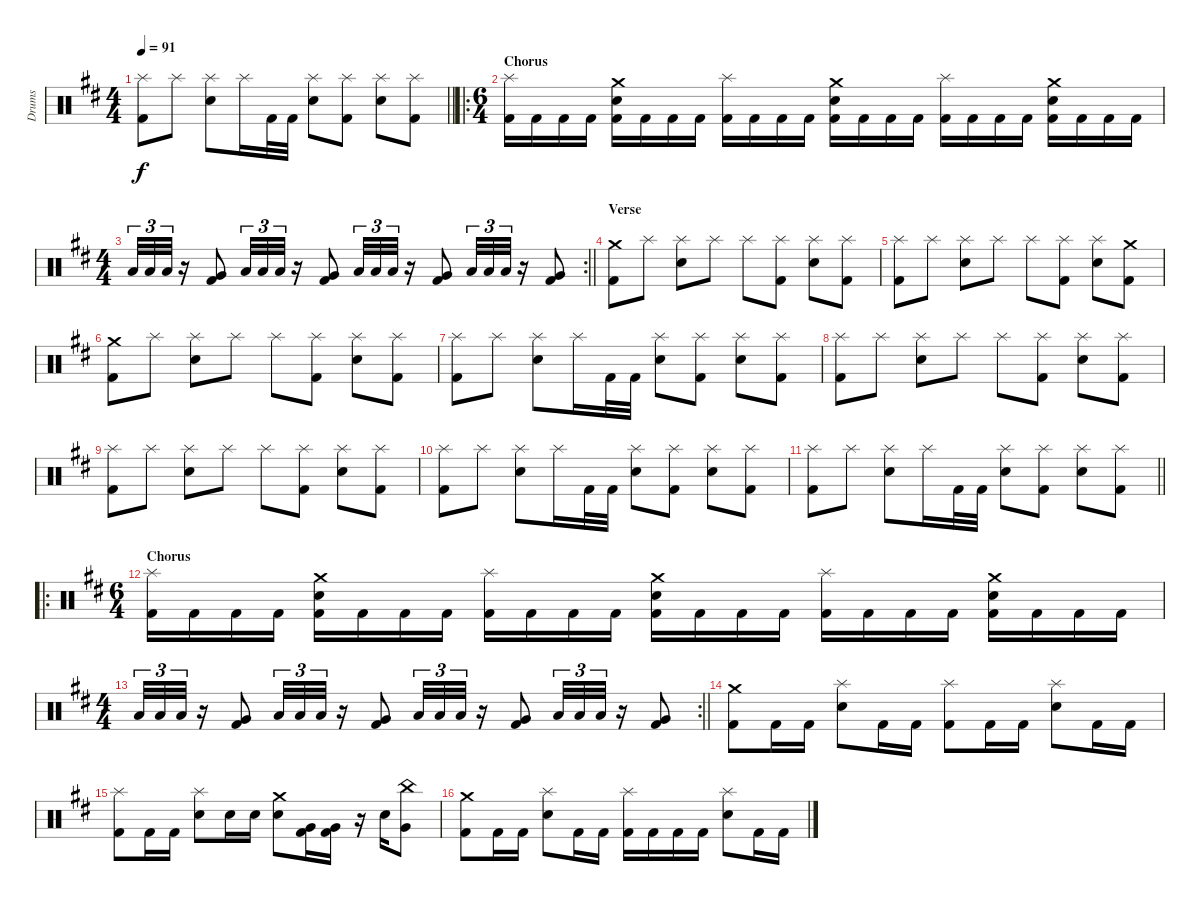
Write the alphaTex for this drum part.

\track ("Drums" "Drums") {instrument percussion}
\staff {score}
\articulation defaults
\ts (4 4)
\tempo 91
\clef neutral
\barLineRight lightlight
\ks bminor
("Splash (hit)" "Kick (hit) 2").8{dy f} "Splash (hit)".8 ("Splash (hit)" "Snare (hit) 2").8 "Splash (hit)".16 "Kick (hit) 2".32 "Kick (hit) 2".32 ("Splash (hit)" "Snare (hit) 2").8 ("Splash (hit)" "Kick (hit) 2").8 ("Splash (hit)" "Snare (hit) 2").8 ("Splash (hit)" "Kick (hit) 2").8 |
\ro
\ts (6 4)
\section ("" "Chorus")
("Splash (hit)" "Kick (hit) 2").16 "Kick (hit) 2".16 "Kick (hit) 2".16 "Kick (hit) 2".16 ("Crash medium (hit)" "Snare (hit) 2" "Kick (hit) 2").16 "Kick (hit) 2".16 "Kick (hit) 2".16 "Kick (hit) 2".16 ("Splash (hit)" "Kick (hit) 2").16 "Kick (hit) 2".16 "Kick (hit) 2".16 "Kick (hit) 2".16 ("Crash medium (hit)" "Snare (hit) 2" "Kick (hit) 2").16 "Kick (hit) 2".16 "Kick (hit) 2".16 "Kick (hit) 2".16 ("Splash (hit)" "Kick (hit) 2").16 "Kick (hit) 2".16 "Kick (hit) 2".16 "Kick (hit) 2".16 ("Crash medium (hit)" "Snare (hit) 2" "Kick (hit) 2").16 "Kick (hit) 2".16 "Kick (hit) 2".16 "Kick (hit) 2".16 |
\rc 2
\ts (4 4)
\barLineRight lightlight "Low Tom (hit)".32{tu (3 2)} "Low Tom (hit)".32{tu (3 2)} "Low Tom (hit)".32{tu (3 2)}
r.16 ("Very Low Tom (hit)" "Kick (hit) 2").8 "Low Tom (hit)".32{tu (3 2)} "Low Tom (hit)".32{tu (3 2)} "Low Tom (hit)".32{tu (3 2)} r.16 ("Very Low Tom (hit)" "Kick (hit) 2").8 "Low Tom (hit)".32{tu (3 2)} "Low Tom (hit)".32{tu (3 2)} "Low Tom (hit)".32{tu (3 2)} r.16 ("Very Low Tom (hit)" "Kick (hit) 2").8 "Low Tom (hit)".32{tu (3 2)} "Low Tom (hit)".32{tu (3 2)} "Low Tom (hit)".32{tu (3 2)} r.16 ("Very Low Tom (hit)" "Kick (hit) 2").8 |
\section ("" "Verse")
("Crash medium (hit)" "Kick (hit) 2").8 "Splash (hit)".8 ("Splash (hit)" "Snare (hit) 2").8 "Splash (hit)".8 "Splash (hit)".8 ("Splash (hit)" "Kick (hit) 2").8 ("Splash (hit)" "Snare (hit) 2").8 ("Splash (hit)" "Kick (hit) 2").8 |
("Splash (hit)" "Kick (hit) 2").8 "Splash (hit)".8 ("Splash (hit)" "Snare (hit) 2").8 "Splash (hit)".8 "Splash (hit)".8 ("Splash (hit)" "Kick (hit) 2").8 ("Splash (hit)" "Snare (hit) 2").8 ("Crash medium (hit)" "Kick (hit) 2").8 |
("Crash medium (hit)" "Kick (hit) 2").8 "Splash (hit)".8 ("Splash (hit)" "Snare (hit) 2").8 "Splash (hit)".8 "Splash (hit)".8 ("Splash (hit)" "Kick (hit) 2").8 ("Splash (hit)" "Snare (hit) 2").8 ("Splash (hit)" "Kick (hit) 2").8 |
("Splash (hit)" "Kick (hit) 2").8 "Splash (hit)".8 ("Splash (hit)" "Snare (hit) 2").8 "Splash (hit)".16 "Kick (hit) 2".32 "Kick (hit) 2".32 ("Splash (hit)" "Snare (hit) 2").8 ("Splash (hit)" "Kick (hit) 2").8 ("Splash (hit)" "Snare (hit) 2").8 ("Splash (hit)" "Kick (hit) 2").8 |
("Splash (hit)" "Kick (hit) 2").8 "Splash (hit)".8 ("Splash (hit)" "Snare (hit) 2").8 "Splash (hit)".8 "Splash (hit)".8 ("Splash (hit)" "Kick (hit) 2").8 ("Splash (hit)" "Snare (hit) 2").8 ("Splash (hit)" "Kick (hit) 2").8 |
("Splash (hit)" "Kick (hit) 2").8 "Splash (hit)".8 ("Splash (hit)" "Snare (hit) 2").8 "Splash (hit)".8 "Splash (hit)".8 ("Splash (hit)" "Kick (hit) 2").8 ("Splash (hit)" "Snare (hit) 2").8 ("Splash (hit)" "Kick (hit) 2").8 |
("Splash (hit)" "Kick (hit) 2").8 "Splash (hit)".8 ("Splash (hit)" "Snare (hit) 2").8 "Splash (hit)".16 "Kick (hit) 2".32 "Kick (hit) 2".32 ("Splash (hit)" "Snare (hit) 2").8 ("Splash (hit)" "Kick (hit) 2").8 ("Splash (hit)" "Snare (hit) 2").8 ("Splash (hit)" "Kick (hit) 2").8 |
\barLineRight lightlight
("Splash (hit)" "Kick (hit) 2").8 "Splash (hit)".8 ("Splash (hit)" "Snare (hit) 2").8 "Splash (hit)".16 "Kick (hit) 2".32 "Kick (hit) 2".32 ("Splash (hit)" "Snare (hit) 2").8 ("Splash (hit)" "Kick (hit) 2").8 ("Splash (hit)" "Snare (hit) 2").8 ("Splash (hit)" "Kick (hit) 2").8 |
\ro
\ts (6 4)
\section ("" "Chorus")
("Splash (hit)" "Kick (hit) 2").16 "Kick (hit) 2".16 "Kick (hit) 2".16 "Kick (hit) 2".16 ("Crash medium (hit)" "Snare (hit) 2" "Kick (hit) 2").16 "Kick (hit) 2".16 "Kick (hit) 2".16 "Kick (hit) 2".16 ("Splash (hit)" "Kick (hit) 2").16 "Kick (hit) 2".16 "Kick (hit) 2".16 "Kick (hit) 2".16 ("Crash medium (hit)" "Snare (hit) 2" "Kick (hit) 2").16 "Kick (hit) 2".16 "Kick (hit) 2".16 "Kick (hit) 2".16 ("Splash (hit)" "Kick (hit) 2").16 "Kick (hit) 2".16 "Kick (hit) 2".16 "Kick (hit) 2".16 ("Crash medium (hit)" "Snare (hit) 2" "Kick (hit) 2").16 "Kick (hit) 2".16 "Kick (hit) 2".16 "Kick (hit) 2".16 |
\rc 2
\ts (4 4)
\barLineRight lightlight "Low Tom (hit)".32{tu (3 2)} "Low Tom (hit)".32{tu (3 2)} "Low Tom (hit)".32{tu (3 2)}
r.16 ("Very Low Tom (hit)" "Kick (hit) 2").8 "Low Tom (hit)".32{tu (3 2)} "Low Tom (hit)".32{tu (3 2)} "Low Tom (hit)".32{tu (3 2)} r.16 ("Very Low Tom (hit)" "Kick (hit) 2").8 "Low Tom (hit)".32{tu (3 2)} "Low Tom (hit)".32{tu (3 2)} "Low Tom (hit)".32{tu (3 2)} r.16 ("Very Low Tom (hit)" "Kick (hit) 2").8 "Low Tom (hit)".32{tu (3 2)} "Low Tom (hit)".32{tu (3 2)} "Low Tom (hit)".32{tu (3 2)} r.16 ("Very Low Tom (hit)" "Kick (hit) 2").8 |
("Crash medium (hit)" "Kick (hit) 2").8 "Kick (hit) 2".16 "Kick (hit) 2".16 ("Splash (hit)" "Snare (hit) 2").8 "Kick (hit) 2".16 "Kick (hit) 2".16 ("Splash (hit)" "Kick (hit) 2").8 "Kick (hit) 2".16 "Kick (hit) 2".16 ("Splash (hit)" "Snare (hit) 2").8 "Kick (hit) 2".16 "Kick (hit) 2".16 |
("Splash (hit)" "Kick (hit) 2").8 "Kick (hit) 2".16 "Kick (hit) 2".16 ("Splash (hit)" "Snare (hit) 2").8 "Snare (hit) 2".16 "Snare (hit) 2".16 ("Crash medium (hit)" "Snare (hit) 2").8 ("Very Low Tom (hit)" "Kick (hit) 2").16 ("Very Low Tom (hit)" "Kick (hit) 2").16 r.16 "Snare (hit) 2".16 ("China (hit)" "Very Low Tom (hit)").8 |
("Crash medium (hit)" "Kick (hit) 2").8 "Kick (hit) 2".16 "Kick (hit) 2".16 ("Splash (hit)" "Snare (hit) 2").8 "Kick (hit) 2".16 "Kick (hit) 2".16 ("Splash (hit)" "Kick (hit) 2").16 "Kick (hit) 2".16 "Kick (hit) 2".16 "Kick (hit) 2".16 ("Splash (hit)" "Snare (hit) 2").8 "Kick (hit) 2".16 "Kick (hit) 2".16
